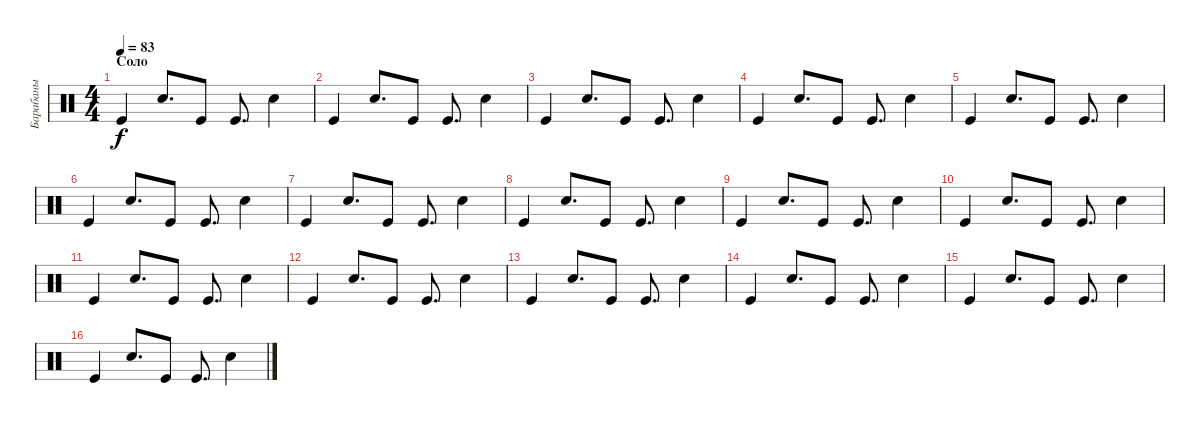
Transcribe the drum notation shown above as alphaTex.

\track ("Барабаны" "Барабаны") {instrument percussion}
\staff {score}
\articulation defaults
\ts (4 4)
\section ("" "Соло")
\tempo 83
\clef neutral
\ks c "Kick (hit)".4{dy f} "Snare (hit) 2".8{d} "Kick (hit)".8 "Kick (hit)".8{d} "Snare (hit) 2".4
|
"Kick (hit)".4 "Snare (hit) 2".8{d} "Kick (hit)".8 "Kick (hit)".8{d} "Snare (hit) 2".4 |
"Kick (hit)".4 "Snare (hit) 2".8{d} "Kick (hit)".8 "Kick (hit)".8{d} "Snare (hit) 2".4 |
"Kick (hit)".4 "Snare (hit) 2".8{d} "Kick (hit)".8 "Kick (hit)".8{d} "Snare (hit) 2".4 |
"Kick (hit)".4 "Snare (hit) 2".8{d} "Kick (hit)".8 "Kick (hit)".8{d} "Snare (hit) 2".4 |
"Kick (hit)".4 "Snare (hit) 2".8{d} "Kick (hit)".8 "Kick (hit)".8{d} "Snare (hit) 2".4 |
"Kick (hit)".4 "Snare (hit) 2".8{d} "Kick (hit)".8 "Kick (hit)".8{d} "Snare (hit) 2".4 |
"Kick (hit)".4 "Snare (hit) 2".8{d} "Kick (hit)".8 "Kick (hit)".8{d} "Snare (hit) 2".4 |
"Kick (hit)".4 "Snare (hit) 2".8{d} "Kick (hit)".8 "Kick (hit)".8{d} "Snare (hit) 2".4 |
"Kick (hit)".4 "Snare (hit) 2".8{d} "Kick (hit)".8 "Kick (hit)".8{d} "Snare (hit) 2".4 |
"Kick (hit)".4 "Snare (hit) 2".8{d} "Kick (hit)".8 "Kick (hit)".8{d} "Snare (hit) 2".4 |
"Kick (hit)".4 "Snare (hit) 2".8{d} "Kick (hit)".8 "Kick (hit)".8{d} "Snare (hit) 2".4 |
"Kick (hit)".4 "Snare (hit) 2".8{d} "Kick (hit)".8 "Kick (hit)".8{d} "Snare (hit) 2".4 |
"Kick (hit)".4 "Snare (hit) 2".8{d} "Kick (hit)".8 "Kick (hit)".8{d} "Snare (hit) 2".4 |
"Kick (hit)".4 "Snare (hit) 2".8{d} "Kick (hit)".8 "Kick (hit)".8{d} "Snare (hit) 2".4 |
"Kick (hit)".4 "Snare (hit) 2".8{d} "Kick (hit)".8 "Kick (hit)".8{d} "Snare (hit) 2".4
